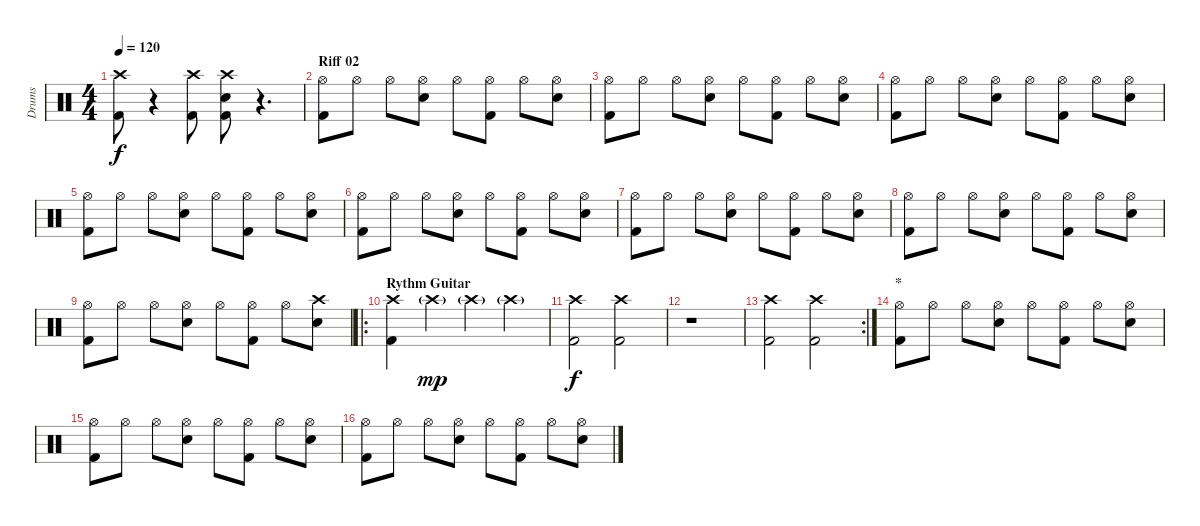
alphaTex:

\track ("Drums" "Drums") {instrument percussion}
\staff {score}
\articulation defaults
\ts (4 4)
\tempo 120
\clef neutral
\ks c
("Crash high (hit)" "Kick (hit) 2").8{dy f} r.4 ("Crash high (hit)" "Kick (hit) 2").8 ("Crash high (hit)" "Electric Snare (hit)" "Kick (hit) 2").8 r.4{d} |
\section ("" "Riff 02")
("Hi-Hat (open)" "Kick (hit) 2").8 "Hi-Hat (open)".8 "Hi-Hat (open)".8 ("Hi-Hat (open)" "Electric Snare (hit)").8 "Hi-Hat (open)".8 ("Hi-Hat (open)" "Kick (hit) 2").8 "Hi-Hat (open)".8 ("Hi-Hat (open)" "Electric Snare (hit)").8 |
("Hi-Hat (open)" "Kick (hit) 2").8 "Hi-Hat (open)".8 "Hi-Hat (open)".8 ("Hi-Hat (open)" "Electric Snare (hit)").8 "Hi-Hat (open)".8 ("Hi-Hat (open)" "Kick (hit) 2").8 "Hi-Hat (open)".8 ("Hi-Hat (open)" "Electric Snare (hit)").8 |
("Hi-Hat (open)" "Kick (hit) 2").8 "Hi-Hat (open)".8 "Hi-Hat (open)".8 ("Hi-Hat (open)" "Electric Snare (hit)").8 "Hi-Hat (open)".8 ("Hi-Hat (open)" "Kick (hit) 2").8 "Hi-Hat (open)".8 ("Hi-Hat (open)" "Electric Snare (hit)").8 |
("Hi-Hat (open)" "Kick (hit) 2").8 "Hi-Hat (open)".8 "Hi-Hat (open)".8 ("Hi-Hat (open)" "Electric Snare (hit)").8 "Hi-Hat (open)".8 ("Hi-Hat (open)" "Kick (hit) 2").8 "Hi-Hat (open)".8 ("Hi-Hat (open)" "Electric Snare (hit)").8 |
("Hi-Hat (open)" "Kick (hit) 2").8 "Hi-Hat (open)".8 "Hi-Hat (open)".8 ("Hi-Hat (open)" "Electric Snare (hit)").8 "Hi-Hat (open)".8 ("Hi-Hat (open)" "Kick (hit) 2").8 "Hi-Hat (open)".8 ("Hi-Hat (open)" "Electric Snare (hit)").8 |
("Hi-Hat (open)" "Kick (hit) 2").8 "Hi-Hat (open)".8 "Hi-Hat (open)".8 ("Hi-Hat (open)" "Electric Snare (hit)").8 "Hi-Hat (open)".8 ("Hi-Hat (open)" "Kick (hit) 2").8 "Hi-Hat (open)".8 ("Hi-Hat (open)" "Electric Snare (hit)").8 |
("Hi-Hat (open)" "Kick (hit) 2").8 "Hi-Hat (open)".8 "Hi-Hat (open)".8 ("Hi-Hat (open)" "Electric Snare (hit)").8 "Hi-Hat (open)".8 ("Hi-Hat (open)" "Kick (hit) 2").8 "Hi-Hat (open)".8 ("Hi-Hat (open)" "Electric Snare (hit)").8 |
("Hi-Hat (open)" "Kick (hit) 2").8 "Hi-Hat (open)".8 "Hi-Hat (open)".8 ("Hi-Hat (open)" "Electric Snare (hit)").8 "Hi-Hat (open)".8 ("Hi-Hat (open)" "Kick (hit) 2").8 "Hi-Hat (open)".8 ("Crash high (hit)" "Electric Snare (hit)").8 |
\ro
\section ("" "Rythm Guitar")
("Crash high (hit)" "Kick (hit) 2").4 "Crash high (hit)"{g}.4{dy mp} "Crash high (hit)"{g}.4 "Crash high (hit)"{g}.4 |
("Crash high (hit)" "Kick (hit) 2").2{dy f} ("Crash high (hit)" "Kick (hit) 2").2 |
r.1 |
\rc 2
("Crash high (hit)" "Kick (hit) 2").2 ("Crash high (hit)" "Kick (hit) 2").2 |
\section ("" "*")
("Hi-Hat (open)" "Kick (hit) 2").8 "Hi-Hat (open)".8 "Hi-Hat (open)".8 ("Hi-Hat (open)" "Electric Snare (hit)").8 "Hi-Hat (open)".8 ("Hi-Hat (open)" "Kick (hit) 2").8 "Hi-Hat (open)".8 ("Hi-Hat (open)" "Electric Snare (hit)").8 |
("Hi-Hat (open)" "Kick (hit) 2").8 "Hi-Hat (open)".8 "Hi-Hat (open)".8 ("Hi-Hat (open)" "Electric Snare (hit)").8 "Hi-Hat (open)".8 ("Hi-Hat (open)" "Kick (hit) 2").8 "Hi-Hat (open)".8 ("Hi-Hat (open)" "Electric Snare (hit)").8 |
("Hi-Hat (open)" "Kick (hit) 2").8 "Hi-Hat (open)".8 "Hi-Hat (open)".8 ("Hi-Hat (open)" "Electric Snare (hit)").8 "Hi-Hat (open)".8 ("Hi-Hat (open)" "Kick (hit) 2").8 "Hi-Hat (open)".8 ("Hi-Hat (open)" "Electric Snare (hit)").8
